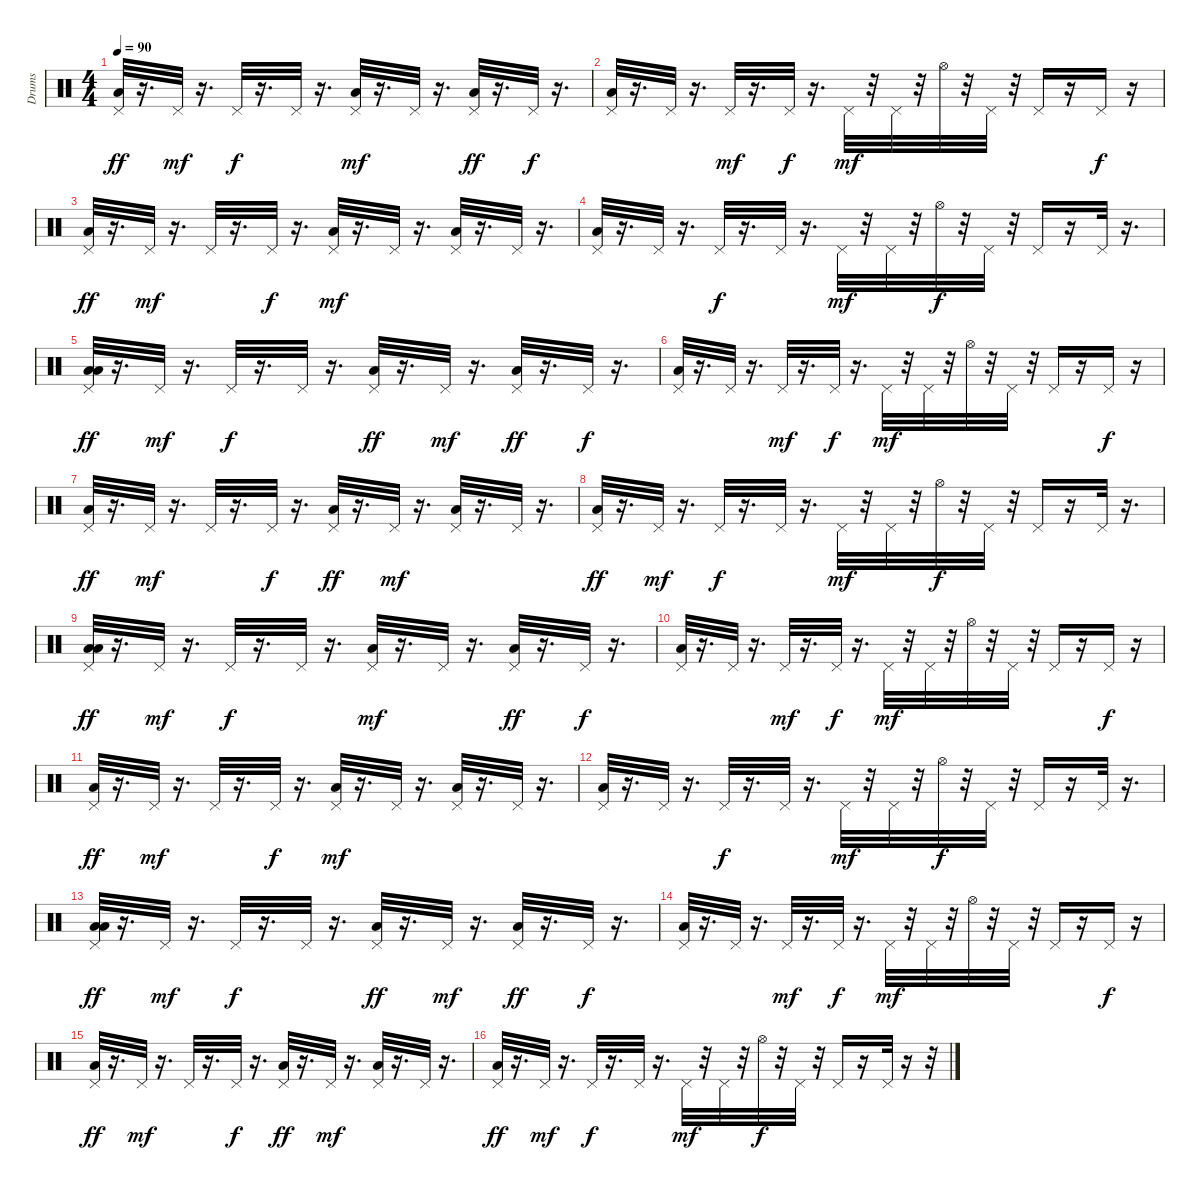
\track ("Drums" "Drums") {instrument percussion}
\staff {score}
\articulation defaults
\ts (4 4)
\tempo 90
\clef neutral
\ks c
("Low Tom (hit)" "Pedal Hi-Hat (hit)").32{dy ff} r.16{d} "Pedal Hi-Hat (hit)".32{dy mf} r.16{d} "Pedal Hi-Hat (hit)".32{dy f} r.16{d} "Pedal Hi-Hat (hit)".32 r.16{d} ("Low Tom (hit)" "Pedal Hi-Hat (hit)").32{dy mf} r.16{d} "Pedal Hi-Hat (hit)".32 r.16{d} ("Low Tom (hit)" "Pedal Hi-Hat (hit)").32{dy ff} r.16{d} "Pedal Hi-Hat (hit)".32{dy f} r.16{d} |
("Low Tom (hit)" "Pedal Hi-Hat (hit)").32 r.16{d} "Pedal Hi-Hat (hit)".32 r.16{d} "Pedal Hi-Hat (hit)".32{dy mf} r.16{d} "Pedal Hi-Hat (hit)".32{dy f} r.16{d} "Pedal Hi-Hat (hit)".32{dy mf} r.32 "Pedal Hi-Hat (hit)".32 r.32 "Hi-Hat (open)".32 r.32 "Pedal Hi-Hat (hit)".32 r.32 "Pedal Hi-Hat (hit)".16 r.16 "Pedal Hi-Hat (hit)".16{dy f} r.16 |
("Low Tom (hit)" "Pedal Hi-Hat (hit)").32{dy ff} r.16{d} "Pedal Hi-Hat (hit)".32{dy mf} r.16{d} "Pedal Hi-Hat (hit)".32 r.16{d} "Pedal Hi-Hat (hit)".32{dy f} r.16{d} ("Low Tom (hit)" "Pedal Hi-Hat (hit)").32{dy mf} r.16{d} "Pedal Hi-Hat (hit)".32 r.16{d} ("Low Tom (hit)" "Pedal Hi-Hat (hit)").32 r.16{d} "Pedal Hi-Hat (hit)".32 r.16{d} |
("Low Tom (hit)" "Pedal Hi-Hat (hit)").32 r.16{d} "Pedal Hi-Hat (hit)".32 r.16{d} "Pedal Hi-Hat (hit)".32{dy f} r.16{d} "Pedal Hi-Hat (hit)".32 r.16{d} "Pedal Hi-Hat (hit)".32{dy mf} r.32 "Pedal Hi-Hat (hit)".32 r.32 "Hi-Hat (open)".32{dy f} r.32 "Pedal Hi-Hat (hit)".32 r.32 "Pedal Hi-Hat (hit)".16 r.16 "Pedal Hi-Hat (hit)".32 r.16{d} |
("Pedal Hi-Hat (hit)" "Low Tom (hit)" "Low Tom (hit)").32{dy ff} r.16{d} "Pedal Hi-Hat (hit)".32{dy mf} r.16{d} "Pedal Hi-Hat (hit)".32{dy f} r.16{d} "Pedal Hi-Hat (hit)".32 r.16{d} ("Pedal Hi-Hat (hit)" "Low Tom (hit)").32{dy ff} r.16{d} "Pedal Hi-Hat (hit)".32{dy mf} r.16{d} ("Pedal Hi-Hat (hit)" "Low Tom (hit)").32{dy ff} r.16{d} "Pedal Hi-Hat (hit)".32{dy f} r.16{d} |
("Pedal Hi-Hat (hit)" "Low Tom (hit)").32 r.16{d} "Pedal Hi-Hat (hit)".32 r.16{d} "Pedal Hi-Hat (hit)".32{dy mf} r.16{d} "Pedal Hi-Hat (hit)".32{dy f} r.16{d} "Pedal Hi-Hat (hit)".32{dy mf} r.32 "Pedal Hi-Hat (hit)".32 r.32 "Hi-Hat (open)".32 r.32 "Pedal Hi-Hat (hit)".32 r.32 "Pedal Hi-Hat (hit)".16 r.16 "Pedal Hi-Hat (hit)".16{dy f} r.16 |
("Pedal Hi-Hat (hit)" "Low Tom (hit)").32{dy ff} r.16{d} "Pedal Hi-Hat (hit)".32{dy mf} r.16{d} "Pedal Hi-Hat (hit)".32 r.16{d} "Pedal Hi-Hat (hit)".32{dy f} r.16{d} ("Pedal Hi-Hat (hit)" "Low Tom (hit)").32{dy ff} r.16{d} "Pedal Hi-Hat (hit)".32{dy mf} r.16{d} ("Pedal Hi-Hat (hit)" "Low Tom (hit)").32 r.16{d} "Pedal Hi-Hat (hit)".32 r.16{d} |
("Pedal Hi-Hat (hit)" "Low Tom (hit)").32{dy ff} r.16{d} "Pedal Hi-Hat (hit)".32{dy mf} r.16{d} "Pedal Hi-Hat (hit)".32{dy f} r.16{d} "Pedal Hi-Hat (hit)".32 r.16{d} "Pedal Hi-Hat (hit)".32{dy mf} r.32 "Pedal Hi-Hat (hit)".32 r.32 "Hi-Hat (open)".32{dy f} r.32 "Pedal Hi-Hat (hit)".32 r.32 "Pedal Hi-Hat (hit)".16 r.16 "Pedal Hi-Hat (hit)".32 r.16{d} |
("Low Tom (hit)" "Pedal Hi-Hat (hit)" "Low Tom (hit)").32{dy ff} r.16{d} "Pedal Hi-Hat (hit)".32{dy mf} r.16{d} "Pedal Hi-Hat (hit)".32{dy f} r.16{d} "Pedal Hi-Hat (hit)".32 r.16{d} ("Low Tom (hit)" "Pedal Hi-Hat (hit)").32{dy mf} r.16{d} "Pedal Hi-Hat (hit)".32 r.16{d} ("Low Tom (hit)" "Pedal Hi-Hat (hit)").32{dy ff} r.16{d} "Pedal Hi-Hat (hit)".32{dy f} r.16{d} |
("Low Tom (hit)" "Pedal Hi-Hat (hit)").32 r.16{d} "Pedal Hi-Hat (hit)".32 r.16{d} "Pedal Hi-Hat (hit)".32{dy mf} r.16{d} "Pedal Hi-Hat (hit)".32{dy f} r.16{d} "Pedal Hi-Hat (hit)".32{dy mf} r.32 "Pedal Hi-Hat (hit)".32 r.32 "Hi-Hat (open)".32 r.32 "Pedal Hi-Hat (hit)".32 r.32 "Pedal Hi-Hat (hit)".16 r.16 "Pedal Hi-Hat (hit)".16{dy f} r.16 |
("Low Tom (hit)" "Pedal Hi-Hat (hit)").32{dy ff} r.16{d} "Pedal Hi-Hat (hit)".32{dy mf} r.16{d} "Pedal Hi-Hat (hit)".32 r.16{d} "Pedal Hi-Hat (hit)".32{dy f} r.16{d} ("Low Tom (hit)" "Pedal Hi-Hat (hit)").32{dy mf} r.16{d} "Pedal Hi-Hat (hit)".32 r.16{d} ("Low Tom (hit)" "Pedal Hi-Hat (hit)").32 r.16{d} "Pedal Hi-Hat (hit)".32 r.16{d} |
("Low Tom (hit)" "Pedal Hi-Hat (hit)").32 r.16{d} "Pedal Hi-Hat (hit)".32 r.16{d} "Pedal Hi-Hat (hit)".32{dy f} r.16{d} "Pedal Hi-Hat (hit)".32 r.16{d} "Pedal Hi-Hat (hit)".32{dy mf} r.32 "Pedal Hi-Hat (hit)".32 r.32 "Hi-Hat (open)".32{dy f} r.32 "Pedal Hi-Hat (hit)".32 r.32 "Pedal Hi-Hat (hit)".16 r.16 "Pedal Hi-Hat (hit)".32 r.16{d} |
("Pedal Hi-Hat (hit)" "Low Tom (hit)" "Low Tom (hit)").32{dy ff} r.16{d} "Pedal Hi-Hat (hit)".32{dy mf} r.16{d} "Pedal Hi-Hat (hit)".32{dy f} r.16{d} "Pedal Hi-Hat (hit)".32 r.16{d} ("Pedal Hi-Hat (hit)" "Low Tom (hit)").32{dy ff} r.16{d} "Pedal Hi-Hat (hit)".32{dy mf} r.16{d} ("Pedal Hi-Hat (hit)" "Low Tom (hit)").32{dy ff} r.16{d} "Pedal Hi-Hat (hit)".32{dy f} r.16{d} |
("Pedal Hi-Hat (hit)" "Low Tom (hit)").32 r.16{d} "Pedal Hi-Hat (hit)".32 r.16{d} "Pedal Hi-Hat (hit)".32{dy mf} r.16{d} "Pedal Hi-Hat (hit)".32{dy f} r.16{d} "Pedal Hi-Hat (hit)".32{dy mf} r.32 "Pedal Hi-Hat (hit)".32 r.32 "Hi-Hat (open)".32 r.32 "Pedal Hi-Hat (hit)".32 r.32 "Pedal Hi-Hat (hit)".16 r.16 "Pedal Hi-Hat (hit)".16{dy f} r.16 |
("Pedal Hi-Hat (hit)" "Low Tom (hit)").32{dy ff} r.16{d} "Pedal Hi-Hat (hit)".32{dy mf} r.16{d} "Pedal Hi-Hat (hit)".32 r.16{d} "Pedal Hi-Hat (hit)".32{dy f} r.16{d} ("Pedal Hi-Hat (hit)" "Low Tom (hit)").32{dy ff} r.16{d} "Pedal Hi-Hat (hit)".32{dy mf} r.16{d} ("Pedal Hi-Hat (hit)" "Low Tom (hit)").32 r.16{d} "Pedal Hi-Hat (hit)".32 r.16{d} |
("Pedal Hi-Hat (hit)" "Low Tom (hit)").32{dy ff} r.16{d} "Pedal Hi-Hat (hit)".32{dy mf} r.16{d} "Pedal Hi-Hat (hit)".32{dy f} r.16{d} "Pedal Hi-Hat (hit)".32 r.16{d} "Pedal Hi-Hat (hit)".32{dy mf} r.32 "Pedal Hi-Hat (hit)".32 r.32 "Hi-Hat (open)".32{dy f} r.32 "Pedal Hi-Hat (hit)".32 r.32 "Pedal Hi-Hat (hit)".16 r.16 "Pedal Hi-Hat (hit)".32 r.16 r.32
